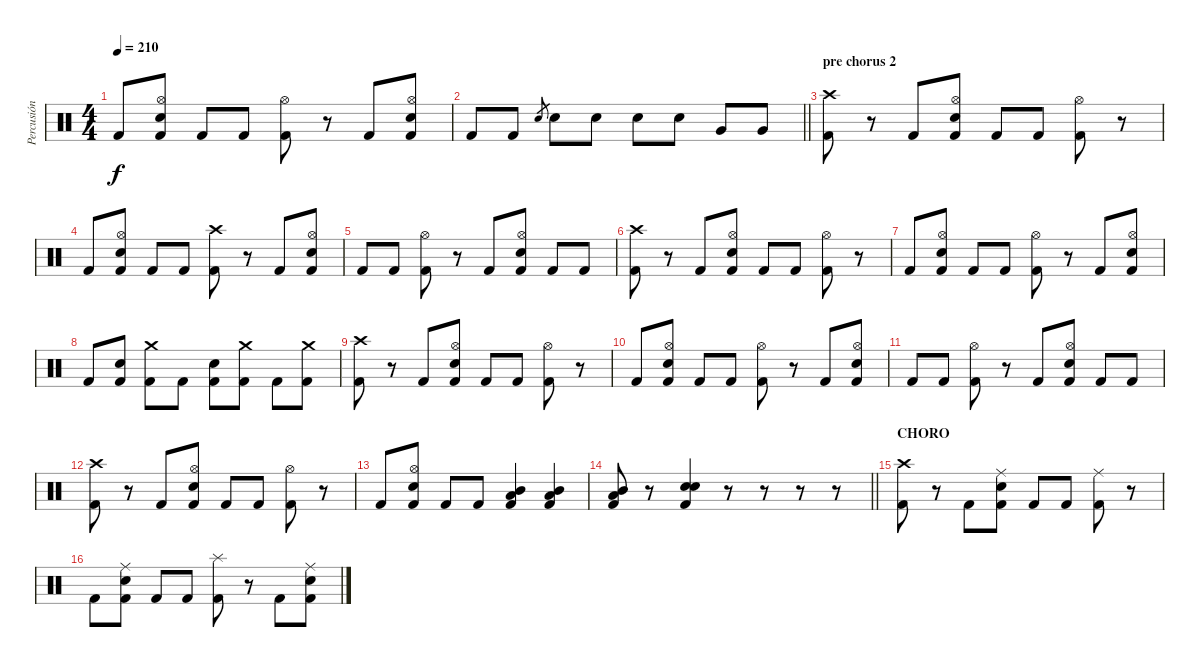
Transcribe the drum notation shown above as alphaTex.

\track ("Percusión" "Percusión") {instrument percussion}
\staff {score}
\articulation defaults
\ts (4 4)
\tempo 210
\clef neutral
\ks c "Kick (hit) 2".8{dy f}
("Hi-Hat (open)" "Snare (hit) 2" "Kick (hit) 2").8 "Kick (hit) 2".8 "Kick (hit) 2".8 ("Hi-Hat (open)" "Kick (hit) 2").8 r.8 "Kick (hit) 2".8 ("Hi-Hat (open)" "Snare (hit) 2" "Kick (hit) 2").8 |
\barLineRight lightlight "Kick (hit) 2".8 "Kick (hit) 2".8 "Snare (hit) 2".8{gr} "Snare (hit) 2".8 "Snare (hit) 2".8 "Electric Snare (hit)".8 "Electric Snare (hit)".8 "Very Low Tom (hit)".8 "Very Low Tom (hit)".8
|
\section ("" "pre chorus 2")
("Crash high (hit)" "Kick (hit) 2").8 r.8 "Kick (hit) 2".8 ("Hi-Hat (open)" "Snare (hit) 2" "Kick (hit) 2").8 "Kick (hit) 2".8 "Kick (hit) 2".8 ("Hi-Hat (open)" "Kick (hit) 2").8 r.8 |
"Kick (hit) 2".8 ("Hi-Hat (open)" "Snare (hit) 2" "Kick (hit) 2").8 "Kick (hit) 2".8 "Kick (hit) 2".8 ("Crash high (hit)" "Kick (hit) 2").8 r.8 "Kick (hit) 2".8 ("Hi-Hat (open)" "Snare (hit) 2" "Kick (hit) 2").8 |
"Kick (hit) 2".8 "Kick (hit) 2".8 ("Hi-Hat (open)" "Kick (hit) 2").8 r.8 "Kick (hit) 2".8 ("Hi-Hat (open)" "Snare (hit) 2" "Kick (hit) 2").8 "Kick (hit) 2".8 "Kick (hit) 2".8 |
("Crash high (hit)" "Kick (hit) 2").8 r.8 "Kick (hit) 2".8 ("Hi-Hat (open)" "Snare (hit) 2" "Kick (hit) 2").8 "Kick (hit) 2".8 "Kick (hit) 2".8 ("Hi-Hat (open)" "Kick (hit) 2").8 r.8 |
"Kick (hit) 2".8 ("Hi-Hat (open)" "Snare (hit) 2" "Kick (hit) 2").8 "Kick (hit) 2".8 "Kick (hit) 2".8 ("Hi-Hat (open)" "Kick (hit) 2").8 r.8 "Kick (hit) 2".8 ("Hi-Hat (open)" "Snare (hit) 2" "Kick (hit) 2").8 |
"Kick (hit) 2".8 ("Electric Snare (hit)" "Kick (hit) 2").8 ("Crash medium (hit)" "Kick (hit) 2").8 "Kick (hit) 2".8 ("Electric Snare (hit)" "Kick (hit) 2").8 ("Crash medium (hit)" "Kick (hit) 2").8 "Kick (hit) 2".8 ("Crash medium (hit)" "Kick (hit) 2").8 |
("Crash high (hit)" "Kick (hit) 2").8 r.8 "Kick (hit) 2".8 ("Hi-Hat (open)" "Snare (hit) 2" "Kick (hit) 2").8 "Kick (hit) 2".8 "Kick (hit) 2".8 ("Hi-Hat (open)" "Kick (hit) 2").8 r.8 |
"Kick (hit) 2".8 ("Hi-Hat (open)" "Snare (hit) 2" "Kick (hit) 2").8 "Kick (hit) 2".8 "Kick (hit) 2".8 ("Hi-Hat (open)" "Kick (hit) 2").8 r.8 "Kick (hit) 2".8 ("Hi-Hat (open)" "Snare (hit) 2" "Kick (hit) 2").8 |
"Kick (hit) 2".8 "Kick (hit) 2".8 ("Hi-Hat (open)" "Kick (hit) 2").8 r.8 "Kick (hit) 2".8 ("Hi-Hat (open)" "Snare (hit) 2" "Kick (hit) 2").8 "Kick (hit) 2".8 "Kick (hit) 2".8 |
("Crash high (hit)" "Kick (hit) 2").8 r.8 "Kick (hit) 2".8 ("Hi-Hat (open)" "Snare (hit) 2" "Kick (hit) 2").8 "Kick (hit) 2".8 "Kick (hit) 2".8 ("Hi-Hat (open)" "Kick (hit) 2").8 r.8 |
"Kick (hit) 2".8 ("Hi-Hat (open)" "Snare (hit) 2" "Kick (hit) 2").8 "Kick (hit) 2".8 "Kick (hit) 2".8 ("Mid Tom (hit)" "Low Tom (hit)" "Kick (hit) 2").4 ("Mid Tom (hit)" "Low Tom (hit)" "Kick (hit) 2").4 |
\barLineRight lightlight
("Mid Tom (hit)" "Low Tom (hit)" "Kick (hit) 2").8 r.8 ("Electric Snare (hit)" "Snare (hit) 2" "Kick (hit) 2").4 r.8 r.8 r.8 r.8 |
\section ("" "CHORO")
("Crash high (hit)" "Kick (hit) 2").8 r.8 "Kick (hit) 2".8 ("Ride (middle)" "Snare (hit) 2" "Kick (hit) 2").8 "Kick (hit) 2".8 "Kick (hit) 2".8 ("Ride (middle)" "Kick (hit) 2").8 r.8 |
"Kick (hit) 2".8 ("Ride (middle)" "Snare (hit) 2" "Kick (hit) 2").8 "Kick (hit) 2".8 "Kick (hit) 2".8 ("Splash (hit)" "Kick (hit) 2").8 r.8 "Kick (hit) 2".8 ("Ride (middle)" "Snare (hit) 2" "Kick (hit) 2").8
